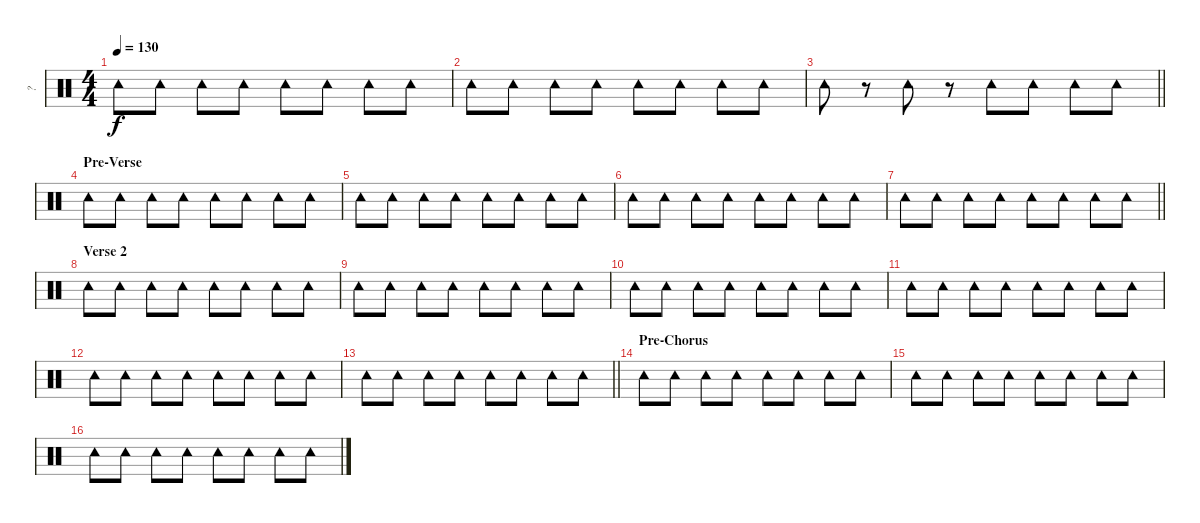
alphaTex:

\track ("?" "?") {instrument percussion}
\staff {score}
\articulation defaults
\ts (4 4)
\tempo 130
\clef neutral
\ks c "Tambourine (hit)".8{dy f} "Tambourine (hit)".8 "Tambourine (hit)".8 "Tambourine (hit)".8 "Tambourine (hit)".8 "Tambourine (hit)".8 "Tambourine (hit)".8 "Tambourine (hit)".8
|
"Tambourine (hit)".8 "Tambourine (hit)".8 "Tambourine (hit)".8 "Tambourine (hit)".8 "Tambourine (hit)".8 "Tambourine (hit)".8 "Tambourine (hit)".8 "Tambourine (hit)".8 |
\barLineRight lightlight "Tambourine (hit)".8
r.8 "Tambourine (hit)".8 r.8 "Tambourine (hit)".8 "Tambourine (hit)".8 "Tambourine (hit)".8 "Tambourine (hit)".8 |
\section ("" "Pre-Verse")
"Tambourine (hit)".8 "Tambourine (hit)".8 "Tambourine (hit)".8 "Tambourine (hit)".8 "Tambourine (hit)".8 "Tambourine (hit)".8 "Tambourine (hit)".8 "Tambourine (hit)".8 |
"Tambourine (hit)".8 "Tambourine (hit)".8 "Tambourine (hit)".8 "Tambourine (hit)".8 "Tambourine (hit)".8 "Tambourine (hit)".8 "Tambourine (hit)".8 "Tambourine (hit)".8 |
"Tambourine (hit)".8 "Tambourine (hit)".8 "Tambourine (hit)".8 "Tambourine (hit)".8 "Tambourine (hit)".8 "Tambourine (hit)".8 "Tambourine (hit)".8 "Tambourine (hit)".8 |
\barLineRight lightlight "Tambourine (hit)".8 "Tambourine (hit)".8 "Tambourine (hit)".8 "Tambourine (hit)".8 "Tambourine (hit)".8 "Tambourine (hit)".8 "Tambourine (hit)".8 "Tambourine (hit)".8
|
\section ("" "Verse 2")
"Tambourine (hit)".8 "Tambourine (hit)".8 "Tambourine (hit)".8 "Tambourine (hit)".8 "Tambourine (hit)".8 "Tambourine (hit)".8 "Tambourine (hit)".8 "Tambourine (hit)".8 |
"Tambourine (hit)".8 "Tambourine (hit)".8 "Tambourine (hit)".8 "Tambourine (hit)".8 "Tambourine (hit)".8 "Tambourine (hit)".8 "Tambourine (hit)".8 "Tambourine (hit)".8 |
"Tambourine (hit)".8 "Tambourine (hit)".8 "Tambourine (hit)".8 "Tambourine (hit)".8 "Tambourine (hit)".8 "Tambourine (hit)".8 "Tambourine (hit)".8 "Tambourine (hit)".8 |
"Tambourine (hit)".8 "Tambourine (hit)".8 "Tambourine (hit)".8 "Tambourine (hit)".8 "Tambourine (hit)".8 "Tambourine (hit)".8 "Tambourine (hit)".8 "Tambourine (hit)".8 |
"Tambourine (hit)".8 "Tambourine (hit)".8 "Tambourine (hit)".8 "Tambourine (hit)".8 "Tambourine (hit)".8 "Tambourine (hit)".8 "Tambourine (hit)".8 "Tambourine (hit)".8 |
\barLineRight lightlight "Tambourine (hit)".8 "Tambourine (hit)".8 "Tambourine (hit)".8 "Tambourine (hit)".8 "Tambourine (hit)".8 "Tambourine (hit)".8 "Tambourine (hit)".8 "Tambourine (hit)".8
|
\section ("" "Pre-Chorus")
"Tambourine (hit)".8 "Tambourine (hit)".8 "Tambourine (hit)".8 "Tambourine (hit)".8 "Tambourine (hit)".8 "Tambourine (hit)".8 "Tambourine (hit)".8 "Tambourine (hit)".8 |
"Tambourine (hit)".8 "Tambourine (hit)".8 "Tambourine (hit)".8 "Tambourine (hit)".8 "Tambourine (hit)".8 "Tambourine (hit)".8 "Tambourine (hit)".8 "Tambourine (hit)".8 |
"Tambourine (hit)".8 "Tambourine (hit)".8 "Tambourine (hit)".8 "Tambourine (hit)".8 "Tambourine (hit)".8 "Tambourine (hit)".8 "Tambourine (hit)".8 "Tambourine (hit)".8
